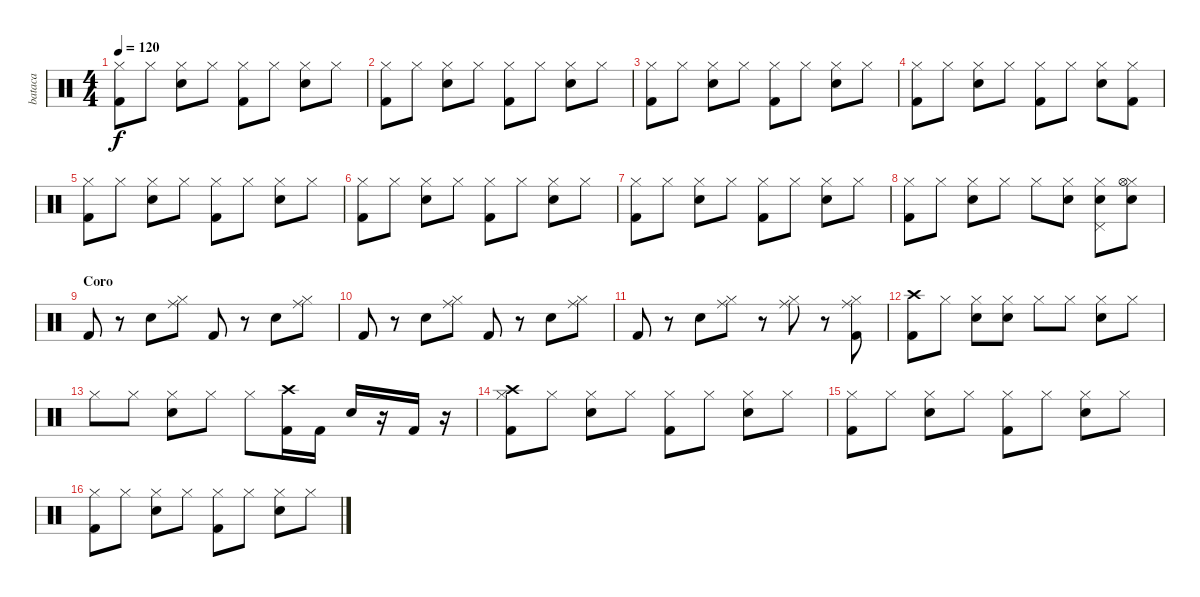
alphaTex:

\track ("bataca" "bataca") {instrument percussion}
\staff {score}
\articulation defaults
\ts (4 4)
\tempo 120
\clef neutral
\ks c
("Hi-Hat (closed)" "Kick (hit) 2").8{dy f} "Hi-Hat (closed)".8 ("Hi-Hat (closed)" "Electric Snare (hit)").8 "Hi-Hat (closed)".8 ("Hi-Hat (closed)" "Kick (hit) 2").8 "Hi-Hat (closed)".8 ("Hi-Hat (closed)" "Electric Snare (hit)").8 "Hi-Hat (closed)".8 |
("Hi-Hat (closed)" "Kick (hit) 2").8 "Hi-Hat (closed)".8 ("Hi-Hat (closed)" "Electric Snare (hit)").8 "Hi-Hat (closed)".8 ("Hi-Hat (closed)" "Kick (hit) 2").8 "Hi-Hat (closed)".8 ("Hi-Hat (closed)" "Electric Snare (hit)").8 "Hi-Hat (closed)".8 |
("Hi-Hat (closed)" "Kick (hit) 2").8 "Hi-Hat (closed)".8 ("Hi-Hat (closed)" "Electric Snare (hit)").8 "Hi-Hat (closed)".8 ("Hi-Hat (closed)" "Kick (hit) 2").8 "Hi-Hat (closed)".8 ("Hi-Hat (closed)" "Electric Snare (hit)").8 "Hi-Hat (closed)".8 |
("Hi-Hat (closed)" "Kick (hit) 2").8 "Hi-Hat (closed)".8 ("Hi-Hat (closed)" "Electric Snare (hit)").8 "Hi-Hat (closed)".8 ("Hi-Hat (closed)" "Kick (hit) 2").8 "Hi-Hat (closed)".8 ("Hi-Hat (closed)" "Electric Snare (hit)").8 ("Hi-Hat (closed)" "Kick (hit) 2").8 |
("Hi-Hat (closed)" "Kick (hit) 2").8 "Hi-Hat (closed)".8 ("Hi-Hat (closed)" "Electric Snare (hit)").8 "Hi-Hat (closed)".8 ("Hi-Hat (closed)" "Kick (hit) 2").8 "Hi-Hat (closed)".8 ("Hi-Hat (closed)" "Electric Snare (hit)").8 "Hi-Hat (closed)".8 |
("Hi-Hat (closed)" "Kick (hit) 2").8 "Hi-Hat (closed)".8 ("Hi-Hat (closed)" "Electric Snare (hit)").8 "Hi-Hat (closed)".8 ("Hi-Hat (closed)" "Kick (hit) 2").8 "Hi-Hat (closed)".8 ("Hi-Hat (closed)" "Electric Snare (hit)").8 "Hi-Hat (closed)".8 |
("Hi-Hat (closed)" "Kick (hit) 2").8 "Hi-Hat (closed)".8 ("Hi-Hat (closed)" "Electric Snare (hit)").8 "Hi-Hat (closed)".8 ("Hi-Hat (closed)" "Kick (hit) 2").8 "Hi-Hat (closed)".8 ("Hi-Hat (closed)" "Electric Snare (hit)").8 "Hi-Hat (closed)".8 |
("Hi-Hat (closed)" "Kick (hit) 2").8 "Hi-Hat (closed)".8 ("Hi-Hat (closed)" "Electric Snare (hit)").8 "Hi-Hat (closed)".8 "Hi-Hat (closed)".8 ("Hi-Hat (closed)" "Electric Snare (hit)").8 ("Hi-Hat (closed)" "Electric Snare (hit)" "Pedal Hi-Hat (hit)").8 ("Hi-Hat (closed)" "Electric Snare (hit)" "Hi-Hat (open)").8 |
\section ("" "Coro")
"Kick (hit) 2".8 r.8 "Electric Snare (hit)".8 ("Ride (middle)" "Hi-Hat (closed)").8 "Kick (hit) 2".8 r.8 "Electric Snare (hit)".8 ("Ride (middle)" "Hi-Hat (closed)").8 |
"Kick (hit) 2".8 r.8 "Electric Snare (hit)".8 ("Ride (middle)" "Hi-Hat (closed)").8 "Kick (hit) 2".8 r.8 "Electric Snare (hit)".8 ("Ride (middle)" "Hi-Hat (closed)").8 |
"Kick (hit) 2".8 r.8 "Electric Snare (hit)".8 ("Ride (middle)" "Hi-Hat (closed)").8 r.8 ("Ride (middle)" "Hi-Hat (closed)").8 r.8 ("Ride (middle)" "Hi-Hat (closed)" "Kick (hit) 2").8 |
("Crash high (hit)" "Kick (hit) 2").8 "Hi-Hat (closed)".8 ("Hi-Hat (closed)" "Electric Snare (hit)").8 ("Hi-Hat (closed)" "Electric Snare (hit)").8 "Hi-Hat (closed)".8 "Hi-Hat (closed)".8 ("Hi-Hat (closed)" "Electric Snare (hit)").8 "Hi-Hat (closed)".8 |
"Hi-Hat (closed)".8 "Hi-Hat (closed)".8 ("Hi-Hat (closed)" "Electric Snare (hit)").8 "Hi-Hat (closed)".8 "Hi-Hat (closed)".8 ("Crash high (hit)" "Kick (hit) 2").16 "Kick (hit) 2".16 "Electric Snare (hit)".16 r.16 "Kick (hit) 2".16 r.16 |
("Hi-Hat (closed)" "Kick (hit) 2" "Crash high (hit)").8 "Hi-Hat (closed)".8 ("Hi-Hat (closed)" "Electric Snare (hit)").8 "Hi-Hat (closed)".8 ("Hi-Hat (closed)" "Kick (hit) 2").8 "Hi-Hat (closed)".8 ("Hi-Hat (closed)" "Electric Snare (hit)").8 "Hi-Hat (closed)".8 |
("Hi-Hat (closed)" "Kick (hit) 2").8 "Hi-Hat (closed)".8 ("Hi-Hat (closed)" "Electric Snare (hit)").8 "Hi-Hat (closed)".8 ("Hi-Hat (closed)" "Kick (hit) 2").8 "Hi-Hat (closed)".8 ("Hi-Hat (closed)" "Electric Snare (hit)").8 "Hi-Hat (closed)".8 |
("Hi-Hat (closed)" "Kick (hit) 2").8 "Hi-Hat (closed)".8 ("Hi-Hat (closed)" "Electric Snare (hit)").8 "Hi-Hat (closed)".8 ("Hi-Hat (closed)" "Kick (hit) 2").8 "Hi-Hat (closed)".8 ("Hi-Hat (closed)" "Electric Snare (hit)").8 "Hi-Hat (closed)".8
